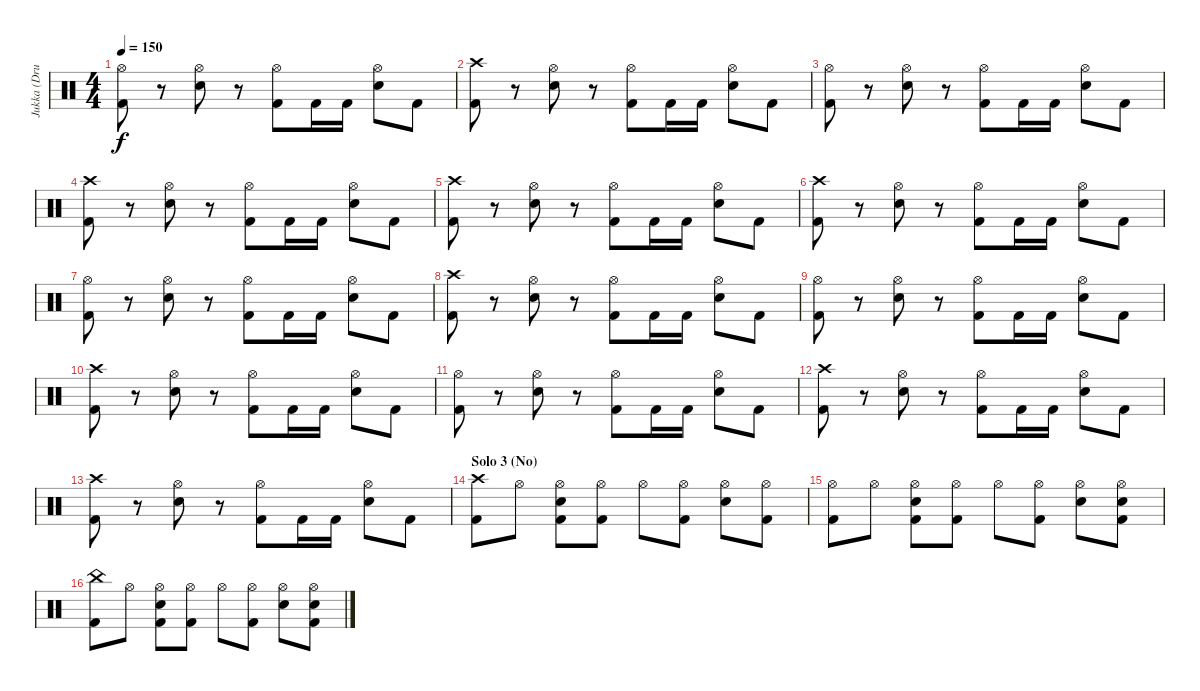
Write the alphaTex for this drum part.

\track ("Jukka (Drums)" "Jukka (Dru") {instrument percussion}
\staff {score}
\articulation defaults
\ts (4 4)
\tempo 150
\clef neutral
\ks c
("Kick (hit) 2" "Hi-Hat (open)").8{dy f} r.8 ("Hi-Hat (open)" "Electric Snare (hit)").8 r.8 ("Kick (hit) 2" "Hi-Hat (open)").8 "Kick (hit) 2".16 "Kick (hit) 2".16 ("Hi-Hat (open)" "Electric Snare (hit)").8 "Kick (hit) 2".8 |
("Kick (hit) 2" "Crash high (hit)").8 r.8 ("Hi-Hat (open)" "Electric Snare (hit)").8 r.8 ("Kick (hit) 2" "Hi-Hat (open)").8 "Kick (hit) 2".16 "Kick (hit) 2".16 ("Hi-Hat (open)" "Electric Snare (hit)").8 "Kick (hit) 2".8 |
("Kick (hit) 2" "Hi-Hat (open)").8 r.8 ("Hi-Hat (open)" "Electric Snare (hit)").8 r.8 ("Kick (hit) 2" "Hi-Hat (open)").8 "Kick (hit) 2".16 "Kick (hit) 2".16 ("Hi-Hat (open)" "Electric Snare (hit)").8 "Kick (hit) 2".8 |
("Kick (hit) 2" "Crash high (hit)").8 r.8 ("Hi-Hat (open)" "Electric Snare (hit)").8 r.8 ("Kick (hit) 2" "Hi-Hat (open)").8 "Kick (hit) 2".16 "Kick (hit) 2".16 ("Hi-Hat (open)" "Electric Snare (hit)").8 "Kick (hit) 2".8 |
("Kick (hit) 2" "Crash high (hit)").8 r.8 ("Hi-Hat (open)" "Electric Snare (hit)").8 r.8 ("Kick (hit) 2" "Hi-Hat (open)").8 "Kick (hit) 2".16 "Kick (hit) 2".16 ("Hi-Hat (open)" "Electric Snare (hit)").8 "Kick (hit) 2".8 |
("Kick (hit) 2" "Crash high (hit)").8 r.8 ("Hi-Hat (open)" "Electric Snare (hit)").8 r.8 ("Kick (hit) 2" "Hi-Hat (open)").8 "Kick (hit) 2".16 "Kick (hit) 2".16 ("Hi-Hat (open)" "Electric Snare (hit)").8 "Kick (hit) 2".8 |
("Kick (hit) 2" "Hi-Hat (open)").8 r.8 ("Hi-Hat (open)" "Electric Snare (hit)").8 r.8 ("Kick (hit) 2" "Hi-Hat (open)").8 "Kick (hit) 2".16 "Kick (hit) 2".16 ("Hi-Hat (open)" "Electric Snare (hit)").8 "Kick (hit) 2".8 |
("Kick (hit) 2" "Crash high (hit)").8 r.8 ("Hi-Hat (open)" "Electric Snare (hit)").8 r.8 ("Kick (hit) 2" "Hi-Hat (open)").8 "Kick (hit) 2".16 "Kick (hit) 2".16 ("Hi-Hat (open)" "Electric Snare (hit)").8 "Kick (hit) 2".8 |
("Kick (hit) 2" "Hi-Hat (open)").8 r.8 ("Hi-Hat (open)" "Electric Snare (hit)").8 r.8 ("Kick (hit) 2" "Hi-Hat (open)").8 "Kick (hit) 2".16 "Kick (hit) 2".16 ("Hi-Hat (open)" "Electric Snare (hit)").8 "Kick (hit) 2".8 |
("Kick (hit) 2" "Crash high (hit)").8 r.8 ("Hi-Hat (open)" "Electric Snare (hit)").8 r.8 ("Kick (hit) 2" "Hi-Hat (open)").8 "Kick (hit) 2".16 "Kick (hit) 2".16 ("Hi-Hat (open)" "Electric Snare (hit)").8 "Kick (hit) 2".8 |
("Kick (hit) 2" "Hi-Hat (open)").8 r.8 ("Hi-Hat (open)" "Electric Snare (hit)").8 r.8 ("Kick (hit) 2" "Hi-Hat (open)").8 "Kick (hit) 2".16 "Kick (hit) 2".16 ("Hi-Hat (open)" "Electric Snare (hit)").8 "Kick (hit) 2".8 |
("Kick (hit) 2" "Crash high (hit)").8 r.8 ("Hi-Hat (open)" "Electric Snare (hit)").8 r.8 ("Kick (hit) 2" "Hi-Hat (open)").8 "Kick (hit) 2".16 "Kick (hit) 2".16 ("Hi-Hat (open)" "Electric Snare (hit)").8 "Kick (hit) 2".8 |
("Kick (hit) 2" "Crash high (hit)").8 r.8 ("Hi-Hat (open)" "Electric Snare (hit)").8 r.8 ("Kick (hit) 2" "Hi-Hat (open)").8 "Kick (hit) 2".16 "Kick (hit) 2".16 ("Hi-Hat (open)" "Electric Snare (hit)").8 "Kick (hit) 2".8 |
\section ("" "Solo 3 (No)")
("Kick (hit) 2" "Crash high (hit)").8 "Hi-Hat (open)".8 ("Kick (hit) 2" "Hi-Hat (open)" "Electric Snare (hit)").8 ("Kick (hit) 2" "Hi-Hat (open)").8 "Hi-Hat (open)".8 ("Kick (hit) 2" "Hi-Hat (open)").8 ("Hi-Hat (open)" "Electric Snare (hit)").8 ("Kick (hit) 2" "Hi-Hat (open)").8 |
("Kick (hit) 2" "Hi-Hat (open)").8 "Hi-Hat (open)".8 ("Kick (hit) 2" "Hi-Hat (open)" "Electric Snare (hit)").8 ("Kick (hit) 2" "Hi-Hat (open)").8 "Hi-Hat (open)".8 ("Kick (hit) 2" "Hi-Hat (open)").8 ("Hi-Hat (open)" "Electric Snare (hit)").8 ("Kick (hit) 2" "Hi-Hat (open)" "Electric Snare (hit)").8 |
("Kick (hit) 2" "China (hit)").8 "Hi-Hat (open)".8 ("Kick (hit) 2" "Hi-Hat (open)" "Electric Snare (hit)").8 ("Kick (hit) 2" "Hi-Hat (open)").8 "Hi-Hat (open)".8 ("Kick (hit) 2" "Hi-Hat (open)").8 ("Hi-Hat (open)" "Electric Snare (hit)").8 ("Kick (hit) 2" "Hi-Hat (open)" "Electric Snare (hit)").8
